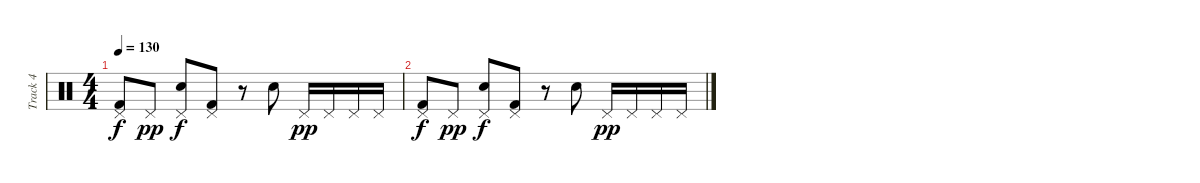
\track ("Track 4" "Track 4") {instrument percussion}
\staff {score}
\articulation defaults
\ts (4 4)
\tempo 130
\clef neutral
\ks c
("Pedal Hi-Hat (hit)" "Kick (hit) 2").8{dy f} "Pedal Hi-Hat (hit)".8{dy pp} ("Pedal Hi-Hat (hit)" "Electric Snare (hit)").8{dy f} ("Pedal Hi-Hat (hit)" "Kick (hit) 2").8 r.8 "Electric Snare (hit)".8 "Pedal Hi-Hat (hit)".16{dy pp} "Pedal Hi-Hat (hit)".16 "Pedal Hi-Hat (hit)".16 "Pedal Hi-Hat (hit)".16 |
("Pedal Hi-Hat (hit)" "Kick (hit) 2").8{dy f} "Pedal Hi-Hat (hit)".8{dy pp} ("Pedal Hi-Hat (hit)" "Electric Snare (hit)").8{dy f} ("Pedal Hi-Hat (hit)" "Kick (hit) 2").8 r.8 "Electric Snare (hit)".8 "Pedal Hi-Hat (hit)".16{dy pp} "Pedal Hi-Hat (hit)".16 "Pedal Hi-Hat (hit)".16 "Pedal Hi-Hat (hit)".16
